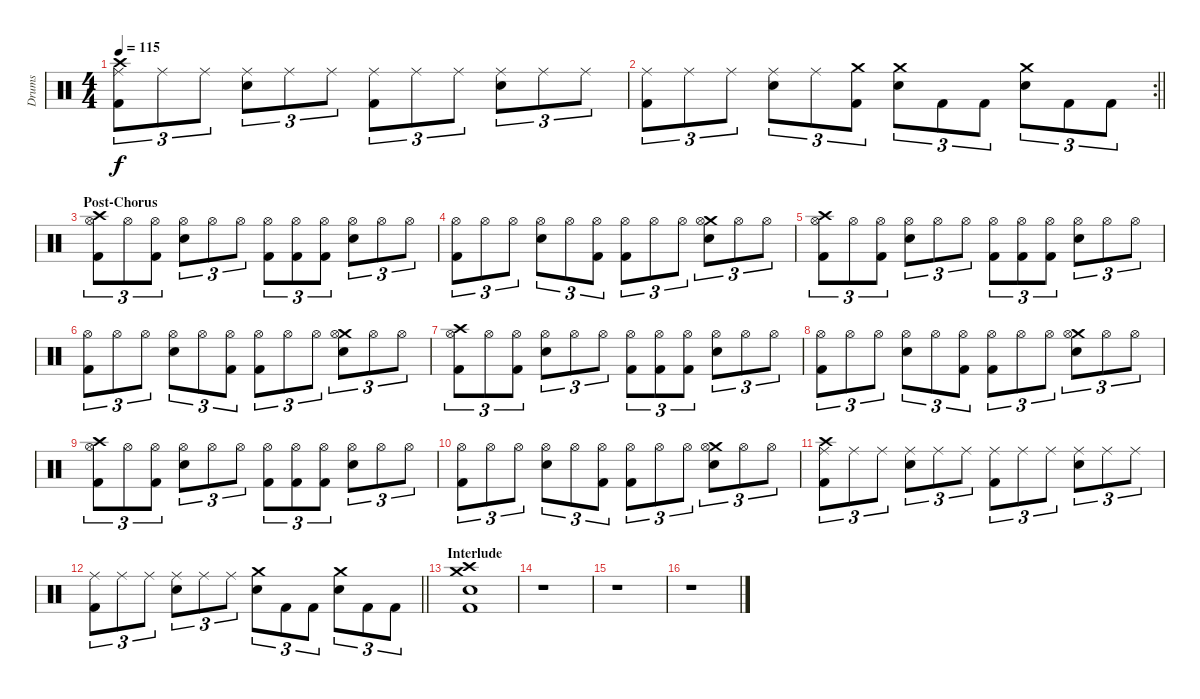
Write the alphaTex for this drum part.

\track ("Drums" "Drums") {instrument percussion}
\staff {score}
\articulation defaults
\ts (4 4)
\tempo 115
\clef neutral
\ks c
("Crash high (hit)" "Ride (middle)" "Kick (hit) 2").8{tu (3 2) dy f} "Ride (middle)".8{tu (3 2)} "Ride (middle)".8{tu (3 2)} ("Ride (middle)" "Snare (hit) 2").8{tu (3 2)} "Ride (middle)".8{tu (3 2)} "Ride (middle)".8{tu (3 2)} ("Ride (middle)" "Kick (hit) 2").8{tu (3 2)} "Ride (middle)".8{tu (3 2)} "Ride (middle)".8{tu (3 2)} ("Ride (middle)" "Snare (hit) 2").8{tu (3 2)} "Ride (middle)".8{tu (3 2)} "Ride (middle)".8{tu (3 2)} |
\rc 2
\barLineRight lightlight
("Ride (middle)" "Kick (hit) 2").8{tu (3 2)} "Ride (middle)".8{tu (3 2)} "Ride (middle)".8{tu (3 2)} ("Ride (middle)" "Snare (hit) 2").8{tu (3 2)} "Ride (middle)".8{tu (3 2)} ("Crash medium (hit)" "Kick (hit) 2").8{tu (3 2)} ("Crash medium (hit)" "Snare (hit) 2").8{tu (3 2)} "Kick (hit) 2".8{tu (3 2)} "Kick (hit) 2".8{tu (3 2)} ("Crash medium (hit)" "Snare (hit) 2").8{tu (3 2)} "Kick (hit) 2".8{tu (3 2)} "Kick (hit) 2".8{tu (3 2)} |
\section ("" "Post-Chorus")
("Crash high (hit)" "Hi-Hat (open)" "Kick (hit) 2").8{tu (3 2)} "Hi-Hat (open)".8{tu (3 2)} ("Hi-Hat (open)" "Kick (hit) 2").8{tu (3 2)} ("Hi-Hat (open)" "Snare (hit) 2").8{tu (3 2)} "Hi-Hat (open)".8{tu (3 2)} "Hi-Hat (open)".8{tu (3 2)} ("Hi-Hat (open)" "Kick (hit) 2").8{tu (3 2)} ("Hi-Hat (open)" "Kick (hit) 2").8{tu (3 2)} ("Hi-Hat (open)" "Kick (hit) 2").8{tu (3 2)} ("Hi-Hat (open)" "Snare (hit) 2").8{tu (3 2)} "Hi-Hat (open)".8{tu (3 2)} "Hi-Hat (open)".8{tu (3 2)} |
("Hi-Hat (open)" "Kick (hit) 2").8{tu (3 2)} "Hi-Hat (open)".8{tu (3 2)} "Hi-Hat (open)".8{tu (3 2)} ("Hi-Hat (open)" "Snare (hit) 2").8{tu (3 2)} "Hi-Hat (open)".8{tu (3 2)} ("Hi-Hat (open)" "Kick (hit) 2").8{tu (3 2)} ("Hi-Hat (open)" "Kick (hit) 2").8{tu (3 2)} "Hi-Hat (open)".8{tu (3 2)} "Hi-Hat (open)".8{tu (3 2)} ("Crash medium (hit)" "Hi-Hat (open)" "Snare (hit) 2").8{tu (3 2)} "Hi-Hat (open)".8{tu (3 2)} "Hi-Hat (open)".8{tu (3 2)} |
("Crash high (hit)" "Hi-Hat (open)" "Kick (hit) 2").8{tu (3 2)} "Hi-Hat (open)".8{tu (3 2)} ("Hi-Hat (open)" "Kick (hit) 2").8{tu (3 2)} ("Hi-Hat (open)" "Snare (hit) 2").8{tu (3 2)} "Hi-Hat (open)".8{tu (3 2)} "Hi-Hat (open)".8{tu (3 2)} ("Hi-Hat (open)" "Kick (hit) 2").8{tu (3 2)} ("Hi-Hat (open)" "Kick (hit) 2").8{tu (3 2)} ("Hi-Hat (open)" "Kick (hit) 2").8{tu (3 2)} ("Hi-Hat (open)" "Snare (hit) 2").8{tu (3 2)} "Hi-Hat (open)".8{tu (3 2)} "Hi-Hat (open)".8{tu (3 2)} |
("Hi-Hat (open)" "Kick (hit) 2").8{tu (3 2)} "Hi-Hat (open)".8{tu (3 2)} "Hi-Hat (open)".8{tu (3 2)} ("Hi-Hat (open)" "Snare (hit) 2").8{tu (3 2)} "Hi-Hat (open)".8{tu (3 2)} ("Hi-Hat (open)" "Kick (hit) 2").8{tu (3 2)} ("Hi-Hat (open)" "Kick (hit) 2").8{tu (3 2)} "Hi-Hat (open)".8{tu (3 2)} "Hi-Hat (open)".8{tu (3 2)} ("Crash medium (hit)" "Hi-Hat (open)" "Snare (hit) 2").8{tu (3 2)} "Hi-Hat (open)".8{tu (3 2)} "Hi-Hat (open)".8{tu (3 2)} |
("Crash high (hit)" "Hi-Hat (open)" "Kick (hit) 2").8{tu (3 2)} "Hi-Hat (open)".8{tu (3 2)} ("Hi-Hat (open)" "Kick (hit) 2").8{tu (3 2)} ("Hi-Hat (open)" "Snare (hit) 2").8{tu (3 2)} "Hi-Hat (open)".8{tu (3 2)} "Hi-Hat (open)".8{tu (3 2)} ("Hi-Hat (open)" "Kick (hit) 2").8{tu (3 2)} ("Hi-Hat (open)" "Kick (hit) 2").8{tu (3 2)} ("Hi-Hat (open)" "Kick (hit) 2").8{tu (3 2)} ("Hi-Hat (open)" "Snare (hit) 2").8{tu (3 2)} "Hi-Hat (open)".8{tu (3 2)} "Hi-Hat (open)".8{tu (3 2)} |
("Hi-Hat (open)" "Kick (hit) 2").8{tu (3 2)} "Hi-Hat (open)".8{tu (3 2)} "Hi-Hat (open)".8{tu (3 2)} ("Hi-Hat (open)" "Snare (hit) 2").8{tu (3 2)} "Hi-Hat (open)".8{tu (3 2)} ("Hi-Hat (open)" "Kick (hit) 2").8{tu (3 2)} ("Hi-Hat (open)" "Kick (hit) 2").8{tu (3 2)} "Hi-Hat (open)".8{tu (3 2)} "Hi-Hat (open)".8{tu (3 2)} ("Crash medium (hit)" "Hi-Hat (open)" "Snare (hit) 2").8{tu (3 2)} "Hi-Hat (open)".8{tu (3 2)} "Hi-Hat (open)".8{tu (3 2)} |
("Crash high (hit)" "Hi-Hat (open)" "Kick (hit) 2").8{tu (3 2)} "Hi-Hat (open)".8{tu (3 2)} ("Hi-Hat (open)" "Kick (hit) 2").8{tu (3 2)} ("Hi-Hat (open)" "Snare (hit) 2").8{tu (3 2)} "Hi-Hat (open)".8{tu (3 2)} "Hi-Hat (open)".8{tu (3 2)} ("Hi-Hat (open)" "Kick (hit) 2").8{tu (3 2)} ("Hi-Hat (open)" "Kick (hit) 2").8{tu (3 2)} ("Hi-Hat (open)" "Kick (hit) 2").8{tu (3 2)} ("Hi-Hat (open)" "Snare (hit) 2").8{tu (3 2)} "Hi-Hat (open)".8{tu (3 2)} "Hi-Hat (open)".8{tu (3 2)} |
("Hi-Hat (open)" "Kick (hit) 2").8{tu (3 2)} "Hi-Hat (open)".8{tu (3 2)} "Hi-Hat (open)".8{tu (3 2)} ("Hi-Hat (open)" "Snare (hit) 2").8{tu (3 2)} "Hi-Hat (open)".8{tu (3 2)} ("Hi-Hat (open)" "Kick (hit) 2").8{tu (3 2)} ("Hi-Hat (open)" "Kick (hit) 2").8{tu (3 2)} "Hi-Hat (open)".8{tu (3 2)} "Hi-Hat (open)".8{tu (3 2)} ("Crash medium (hit)" "Hi-Hat (open)" "Snare (hit) 2").8{tu (3 2)} "Hi-Hat (open)".8{tu (3 2)} "Hi-Hat (open)".8{tu (3 2)} |
("Crash high (hit)" "Ride (middle)" "Kick (hit) 2").8{tu (3 2)} "Ride (middle)".8{tu (3 2)} "Ride (middle)".8{tu (3 2)} ("Ride (middle)" "Snare (hit) 2").8{tu (3 2)} "Ride (middle)".8{tu (3 2)} "Ride (middle)".8{tu (3 2)} ("Ride (middle)" "Kick (hit) 2").8{tu (3 2)} "Ride (middle)".8{tu (3 2)} "Ride (middle)".8{tu (3 2)} ("Ride (middle)" "Snare (hit) 2").8{tu (3 2)} "Ride (middle)".8{tu (3 2)} "Ride (middle)".8{tu (3 2)} |
\barLineRight lightlight
("Ride (middle)" "Kick (hit) 2").8{tu (3 2)} "Ride (middle)".8{tu (3 2)} "Ride (middle)".8{tu (3 2)} ("Ride (middle)" "Snare (hit) 2").8{tu (3 2)} "Ride (middle)".8{tu (3 2)} "Ride (middle)".8{tu (3 2)} ("Crash medium (hit)" "Snare (hit) 2").8{tu (3 2)} "Kick (hit) 2".8{tu (3 2)} "Kick (hit) 2".8{tu (3 2)} ("Crash medium (hit)" "Snare (hit) 2").8{tu (3 2)} "Kick (hit) 2".8{tu (3 2)} "Kick (hit) 2".8{tu (3 2)} |
\section ("" "Interlude")
("Crash high (hit)" "Crash medium (hit)" "Snare (hit) 2" "Kick (hit) 2").1 |
r.1 |
r.1 |
r.1
